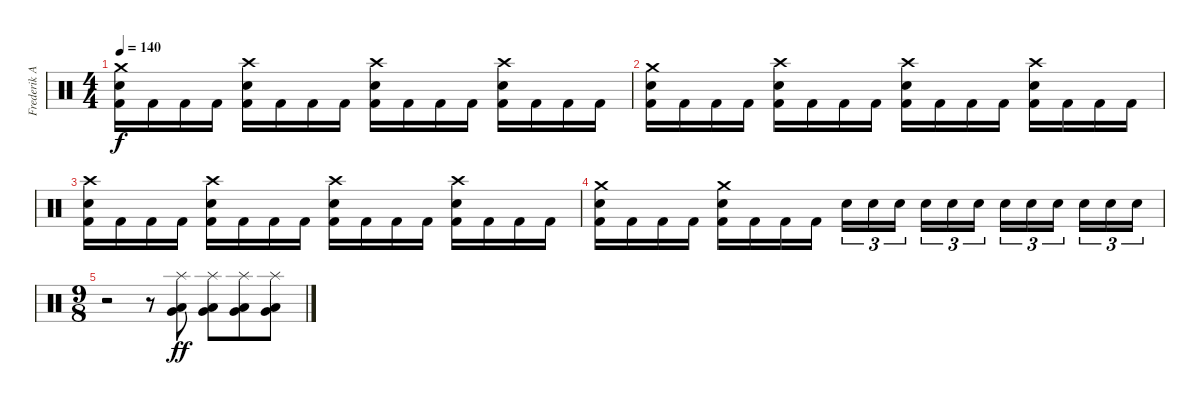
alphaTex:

\track ("Frederik Anderson" "Frederik A") {instrument percussion}
\staff {score}
\articulation defaults
\ts (4 4)
\tempo 140
\clef neutral
\ks c
("Crash medium (hit)" "Electric Snare (hit)" "Kick (hit) 2").16{dy f} "Kick (hit) 2".16 "Kick (hit) 2".16 "Kick (hit) 2".16 ("Crash high (hit)" "Electric Snare (hit)" "Kick (hit) 2").16 "Kick (hit) 2".16 "Kick (hit) 2".16 "Kick (hit) 2".16 ("Crash high (hit)" "Electric Snare (hit)" "Kick (hit) 2").16 "Kick (hit) 2".16 "Kick (hit) 2".16 "Kick (hit) 2".16 ("Crash high (hit)" "Electric Snare (hit)" "Kick (hit) 2").16 "Kick (hit) 2".16 "Kick (hit) 2".16 "Kick (hit) 2".16 |
("Crash medium (hit)" "Electric Snare (hit)" "Kick (hit) 2").16 "Kick (hit) 2".16 "Kick (hit) 2".16 "Kick (hit) 2".16 ("Crash high (hit)" "Electric Snare (hit)" "Kick (hit) 2").16 "Kick (hit) 2".16 "Kick (hit) 2".16 "Kick (hit) 2".16 ("Crash high (hit)" "Electric Snare (hit)" "Kick (hit) 2").16 "Kick (hit) 2".16 "Kick (hit) 2".16 "Kick (hit) 2".16 ("Crash high (hit)" "Electric Snare (hit)" "Kick (hit) 2").16 "Kick (hit) 2".16 "Kick (hit) 2".16 "Kick (hit) 2".16 |
("Crash high (hit)" "Electric Snare (hit)" "Kick (hit) 2").16 "Kick (hit) 2".16 "Kick (hit) 2".16 "Kick (hit) 2".16 ("Crash high (hit)" "Electric Snare (hit)" "Kick (hit) 2").16 "Kick (hit) 2".16 "Kick (hit) 2".16 "Kick (hit) 2".16 ("Crash high (hit)" "Electric Snare (hit)" "Kick (hit) 2").16 "Kick (hit) 2".16 "Kick (hit) 2".16 "Kick (hit) 2".16 ("Crash high (hit)" "Electric Snare (hit)" "Kick (hit) 2").16 "Kick (hit) 2".16 "Kick (hit) 2".16 "Kick (hit) 2".16 |
("Crash medium (hit)" "Electric Snare (hit)" "Kick (hit) 2").16 "Kick (hit) 2".16 "Kick (hit) 2".16 "Kick (hit) 2".16 ("Crash medium (hit)" "Electric Snare (hit)" "Kick (hit) 2").16 "Kick (hit) 2".16 "Kick (hit) 2".16 "Kick (hit) 2".16 "Electric Snare (hit)".16{tu (3 2)} "Electric Snare (hit)".16{tu (3 2)} "Electric Snare (hit)".16{tu (3 2)} "Electric Snare (hit)".16{tu (3 2)} "Electric Snare (hit)".16{tu (3 2)} "Electric Snare (hit)".16{tu (3 2)} "Electric Snare (hit)".16{tu (3 2)} "Electric Snare (hit)".16{tu (3 2)} "Electric Snare (hit)".16{tu (3 2)} "Electric Snare (hit)".16{tu (3 2)} "Electric Snare (hit)".16{tu (3 2)} "Electric Snare (hit)".16{tu (3 2)} |
\ts (9 8)
r.2 r.8 ("Splash (hit)" "Low Floor Tom (hit)" "Very Low Tom (hit)").8{dy ff} ("Splash (hit)" "Low Floor Tom (hit)" "Very Low Tom (hit)").8 ("Splash (hit)" "Low Floor Tom (hit)" "Very Low Tom (hit)").8 ("Splash (hit)" "Low Floor Tom (hit)" "Very Low Tom (hit)").8
